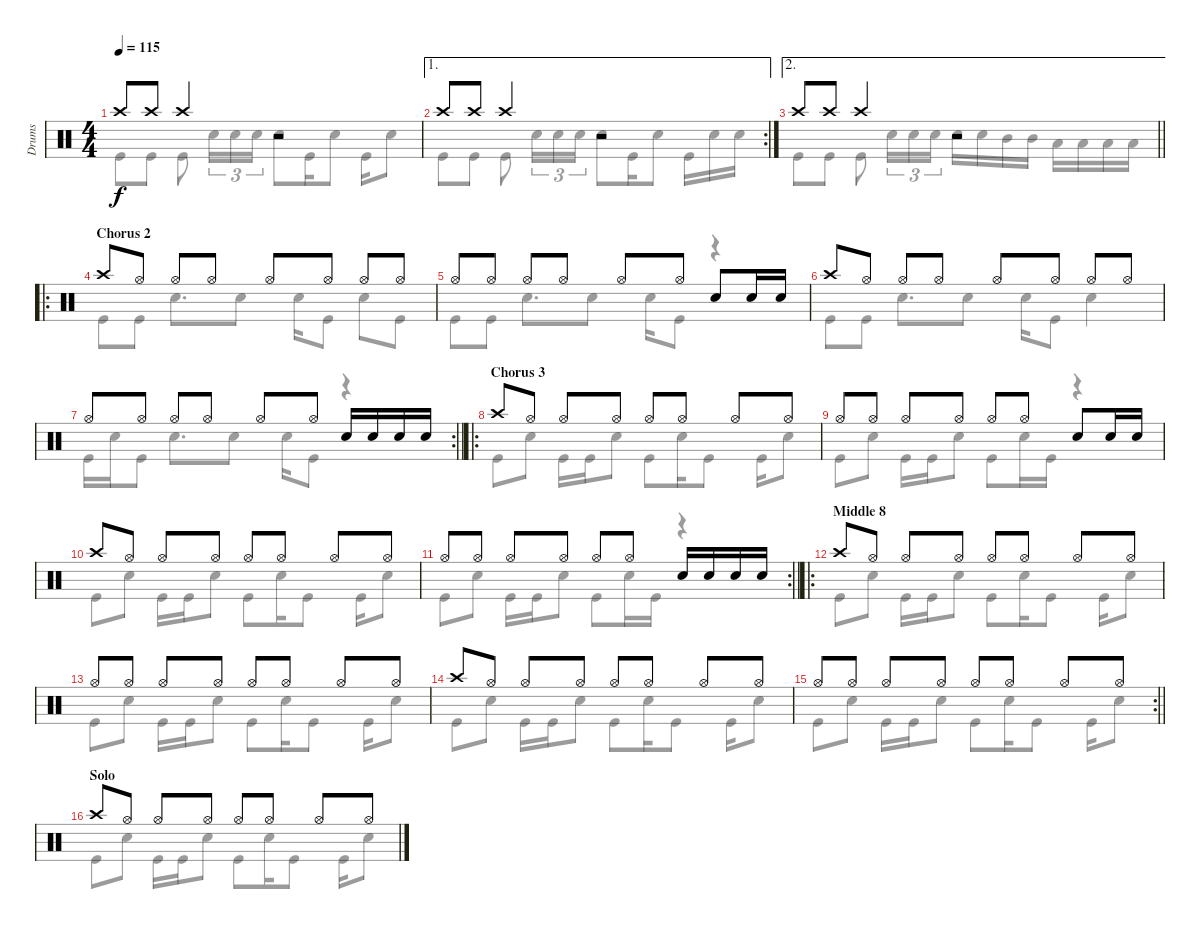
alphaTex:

\track ("Drums" "Drums") {instrument percussion}
\staff {score}
\articulation defaults
\voice
\ts (4 4)
\tempo 115
\clef neutral
\ks c "Crash high (hit)".8{dy f} "Crash high (hit)".8 "Crash high (hit)".4
r.2 |
\ae 1
\rc 2 "Crash high (hit)".8 "Crash high (hit)".8 "Crash high (hit)".4
r.2 |
\ae 2
\barLineRight lightlight "Crash high (hit)".8 "Crash high (hit)".8 "Crash high (hit)".4
r.2 |
\ro
\section ("" "Chorus 2")
"Crash high (hit)".8 "Hi-Hat (open)".8 "Hi-Hat (open)".8 "Hi-Hat (open)".8 "Hi-Hat (open)".8 "Hi-Hat (open)".8 "Hi-Hat (open)".8 "Hi-Hat (open)".8 |
"Hi-Hat (open)".8 "Hi-Hat (open)".8 "Hi-Hat (open)".8 "Hi-Hat (open)".8 "Hi-Hat (open)".8 "Hi-Hat (open)".8 "Electric Snare (hit)".8 "Electric Snare (hit)".16 "Electric Snare (hit)".16 |
"Crash high (hit)".8 "Hi-Hat (open)".8 "Hi-Hat (open)".8 "Hi-Hat (open)".8 "Hi-Hat (open)".8 "Hi-Hat (open)".8 "Hi-Hat (open)".8 "Hi-Hat (open)".8 |
\rc 2
\barLineRight lightlight "Hi-Hat (open)".8 "Hi-Hat (open)".8 "Hi-Hat (open)".8 "Hi-Hat (open)".8 "Hi-Hat (open)".8 "Hi-Hat (open)".8 "Electric Snare (hit)".16 "Electric Snare (hit)".16 "Electric Snare (hit)".16 "Electric Snare (hit)".16
|
\ro
\section ("" "Chorus 3")
"Crash high (hit)".8 "Hi-Hat (open)".8 "Hi-Hat (open)".8 "Hi-Hat (open)".8 "Hi-Hat (open)".8 "Hi-Hat (open)".8 "Hi-Hat (open)".8 "Hi-Hat (open)".8 |
"Hi-Hat (open)".8 "Hi-Hat (open)".8 "Hi-Hat (open)".8 "Hi-Hat (open)".8 "Hi-Hat (open)".8 "Hi-Hat (open)".8 "Electric Snare (hit)".8 "Electric Snare (hit)".16 "Electric Snare (hit)".16 |
"Crash high (hit)".8 "Hi-Hat (open)".8 "Hi-Hat (open)".8 "Hi-Hat (open)".8 "Hi-Hat (open)".8 "Hi-Hat (open)".8 "Hi-Hat (open)".8 "Hi-Hat (open)".8 |
\rc 2
\barLineRight lightlight "Hi-Hat (open)".8 "Hi-Hat (open)".8 "Hi-Hat (open)".8 "Hi-Hat (open)".8 "Hi-Hat (open)".8 "Hi-Hat (open)".8 "Electric Snare (hit)".16 "Electric Snare (hit)".16 "Electric Snare (hit)".16 "Electric Snare (hit)".16
|
\ro
\section ("" "Middle 8")
"Crash high (hit)".8 "Hi-Hat (open)".8 "Hi-Hat (open)".8 "Hi-Hat (open)".8 "Hi-Hat (open)".8 "Hi-Hat (open)".8 "Hi-Hat (open)".8 "Hi-Hat (open)".8 |
"Hi-Hat (open)".8 "Hi-Hat (open)".8 "Hi-Hat (open)".8 "Hi-Hat (open)".8 "Hi-Hat (open)".8 "Hi-Hat (open)".8 "Hi-Hat (open)".8 "Hi-Hat (open)".8 |
"Crash high (hit)".8 "Hi-Hat (open)".8 "Hi-Hat (open)".8 "Hi-Hat (open)".8 "Hi-Hat (open)".8 "Hi-Hat (open)".8 "Hi-Hat (open)".8 "Hi-Hat (open)".8 |
\rc 2
\barLineRight lightlight "Hi-Hat (open)".8 "Hi-Hat (open)".8 "Hi-Hat (open)".8 "Hi-Hat (open)".8 "Hi-Hat (open)".8 "Hi-Hat (open)".8 "Hi-Hat (open)".8 "Hi-Hat (open)".8
|
\section ("" "Solo")
"Crash high (hit)".8 "Hi-Hat (open)".8 "Hi-Hat (open)".8 "Hi-Hat (open)".8 "Hi-Hat (open)".8 "Hi-Hat (open)".8 "Hi-Hat (open)".8 "Hi-Hat (open)".8
\voice
\clef neutral
\ottava regular
\simile none
\ks c "Kick (hit)".8{dy f} "Kick (hit)".8 "Kick (hit)".8 "Electric Snare (hit)".16{tu (3 2)} "Electric Snare (hit)".16{tu (3 2)} "Electric Snare (hit)".16{tu (3 2)} "Electric Snare (hit)".8 "Kick (hit)".16 "Electric Snare (hit)".8 "Kick (hit)".16 "Electric Snare (hit)".8
|
"Kick (hit)".8 "Kick (hit)".8 "Kick (hit)".8 "Electric Snare (hit)".16{tu (3 2)} "Electric Snare (hit)".16{tu (3 2)} "Electric Snare (hit)".16{tu (3 2)} "Electric Snare (hit)".8 "Kick (hit)".16 "Electric Snare (hit)".8 "Kick (hit)".16 "Electric Snare (hit)".16 "Electric Snare (hit)".16 |
\barLineRight lightlight "Kick (hit)".8 "Kick (hit)".8 "Kick (hit)".8 "Electric Snare (hit)".16{tu (3 2)} "Electric Snare (hit)".16{tu (3 2)} "Electric Snare (hit)".16{tu (3 2)} "Electric Snare (hit)".16 "Electric Snare (hit)".16 "Mid Tom (hit)".16 "Mid Tom (hit)".16 "Low Tom (hit)".16 "Low Tom (hit)".16 "Low Floor Tom (hit)".16 "Low Floor Tom (hit)".16
|
"Kick (hit)".8 "Kick (hit)".8 "Electric Snare (hit)".8{d} "Electric Snare (hit)".8 "Electric Snare (hit)".16 "Kick (hit)".8 "Electric Snare (hit)".8 "Kick (hit)".8 |
"Kick (hit)".8 "Kick (hit)".8 "Electric Snare (hit)".8{d} "Electric Snare (hit)".8 "Electric Snare (hit)".16 "Kick (hit)".8 r.4 |
"Kick (hit)".8 "Kick (hit)".8 "Electric Snare (hit)".8{d} "Electric Snare (hit)".8 "Electric Snare (hit)".16 "Kick (hit)".8 "Electric Snare (hit)".4 |
\barLineRight lightlight "Kick (hit)".16 "Electric Snare (hit)".16 "Kick (hit)".8 "Electric Snare (hit)".8{d} "Electric Snare (hit)".8 "Electric Snare (hit)".16 "Kick (hit)".8
r.4 |
"Kick (hit)".8 "Electric Snare (hit)".8 "Kick (hit)".16 "Kick (hit)".16 "Electric Snare (hit)".8 "Kick (hit)".8 "Electric Snare (hit)".16 "Kick (hit)".8 "Kick (hit)".16 "Electric Snare (hit)".8 |
"Kick (hit)".8 "Electric Snare (hit)".8 "Kick (hit)".16 "Kick (hit)".16 "Electric Snare (hit)".8 "Kick (hit)".8 "Electric Snare (hit)".16 "Kick (hit)".16 r.4 |
"Kick (hit)".8 "Electric Snare (hit)".8 "Kick (hit)".16 "Kick (hit)".16 "Electric Snare (hit)".8 "Kick (hit)".8 "Electric Snare (hit)".16 "Kick (hit)".8 "Kick (hit)".16 "Electric Snare (hit)".8 |
\barLineRight lightlight "Kick (hit)".8 "Electric Snare (hit)".8 "Kick (hit)".16 "Kick (hit)".16 "Electric Snare (hit)".8 "Kick (hit)".8 "Electric Snare (hit)".16 "Kick (hit)".16
r.4 |
"Kick (hit)".8 "Electric Snare (hit)".8 "Kick (hit)".16 "Kick (hit)".16 "Electric Snare (hit)".8 "Kick (hit)".8 "Electric Snare (hit)".16 "Kick (hit)".8 "Kick (hit)".16 "Electric Snare (hit)".8 |
"Kick (hit)".8 "Electric Snare (hit)".8 "Kick (hit)".16 "Kick (hit)".16 "Electric Snare (hit)".8 "Kick (hit)".8 "Electric Snare (hit)".16 "Kick (hit)".8 "Kick (hit)".16 "Electric Snare (hit)".8 |
"Kick (hit)".8 "Electric Snare (hit)".8 "Kick (hit)".16 "Kick (hit)".16 "Electric Snare (hit)".8 "Kick (hit)".8 "Electric Snare (hit)".16 "Kick (hit)".8 "Kick (hit)".16 "Electric Snare (hit)".8 |
\barLineRight lightlight "Kick (hit)".8 "Electric Snare (hit)".8 "Kick (hit)".16 "Kick (hit)".16 "Electric Snare (hit)".8 "Kick (hit)".8 "Electric Snare (hit)".16 "Kick (hit)".8 "Kick (hit)".16 "Electric Snare (hit)".8
|
"Kick (hit)".8 "Electric Snare (hit)".8 "Kick (hit)".16 "Kick (hit)".16 "Electric Snare (hit)".8 "Kick (hit)".8 "Electric Snare (hit)".16 "Kick (hit)".8 "Kick (hit)".16 "Electric Snare (hit)".8
